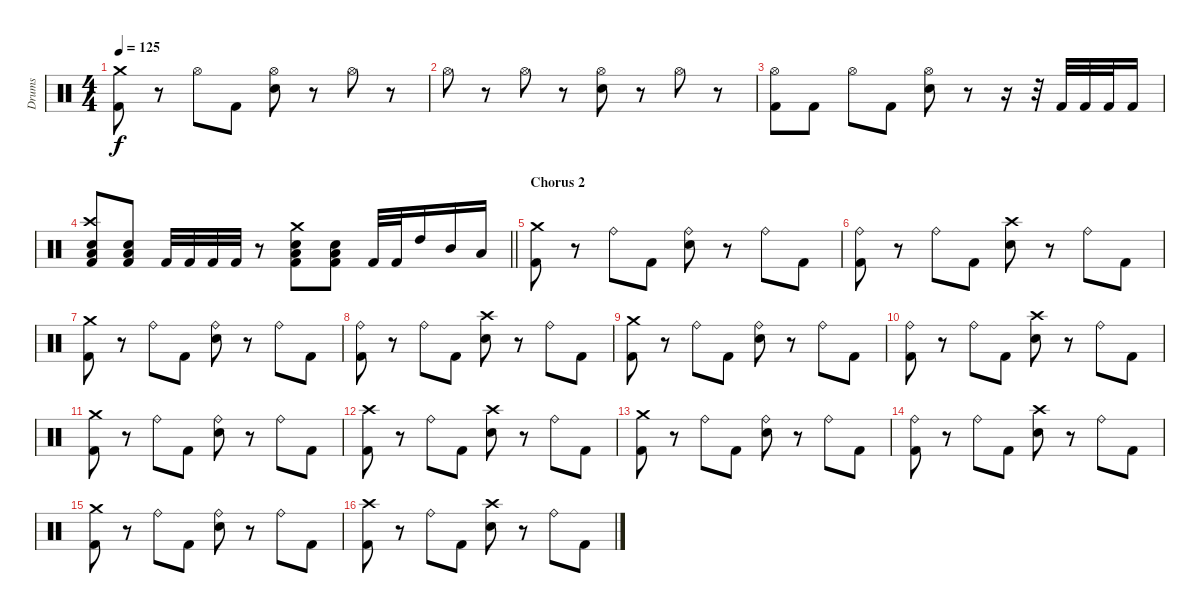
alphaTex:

\track ("Drums " "Drums ") {instrument percussion}
\staff {score}
\articulation defaults
\ts (4 4)
\tempo 125
\clef neutral
\ks c
("Crash medium (hit)" "Kick (hit) 2").8{dy f} r.8 "Hi-Hat (open)".8 "Kick (hit) 2".8 ("Hi-Hat (open)" "Electric Snare (hit)").8 r.8 "Hi-Hat (open)".8 r.8 |
"Hi-Hat (open)".8 r.8 "Hi-Hat (open)".8 r.8 ("Hi-Hat (open)" "Electric Snare (hit)").8 r.8 "Hi-Hat (open)".8 r.8 |
("Hi-Hat (open)" "Kick (hit) 2").8 "Kick (hit) 2".8 "Hi-Hat (open)".8 "Kick (hit) 2".8 ("Hi-Hat (open)" "Electric Snare (hit)").8 r.8 r.16 r.32 "Kick (hit) 2".32 "Kick (hit) 2".32 "Kick (hit) 2".32 "Kick (hit) 2".16 |
\barLineRight lightlight
("Crash high (hit)" "Low Tom (hit)" "Electric Snare (hit)" "Kick (hit) 2").8 ("Low Tom (hit)" "Electric Snare (hit)" "Kick (hit) 2").8 "Kick (hit) 2".32 "Kick (hit) 2".32 "Kick (hit) 2".32 "Kick (hit) 2".32 r.8 ("Crash medium (hit)" "Low Tom (hit)" "Electric Snare (hit)" "Kick (hit) 2").8 ("Low Tom (hit)" "Electric Snare (hit)" "Kick (hit) 2").8 "Kick (hit) 2".32 "Kick (hit) 2".32 "High Tom (hit)".16 "Mid Tom (hit)".16 "Low Tom (hit)".16 |
\section ("" "Chorus 2 ")
("Crash medium (hit)" "Kick (hit) 2").8 r.8 "Ride (bell)".8 "Kick (hit) 2".8 ("Ride (bell)" "Electric Snare (hit)").8 r.8 "Ride (bell)".8 "Kick (hit) 2".8 |
("Ride (bell)" "Kick (hit) 2").8 r.8 "Ride (bell)".8 "Kick (hit) 2".8 ("Crash high (hit)" "Electric Snare (hit)").8 r.8 "Ride (bell)".8 "Kick (hit) 2".8 |
("Crash medium (hit)" "Kick (hit) 2").8 r.8 "Ride (bell)".8 "Kick (hit) 2".8 ("Ride (bell)" "Electric Snare (hit)").8 r.8 "Ride (bell)".8 "Kick (hit) 2".8 |
("Ride (bell)" "Kick (hit) 2").8 r.8 "Ride (bell)".8 "Kick (hit) 2".8 ("Crash high (hit)" "Electric Snare (hit)").8 r.8 "Ride (bell)".8 "Kick (hit) 2".8 |
("Crash medium (hit)" "Kick (hit) 2").8 r.8 "Ride (bell)".8 "Kick (hit) 2".8 ("Ride (bell)" "Electric Snare (hit)").8 r.8 "Ride (bell)".8 "Kick (hit) 2".8 |
("Ride (bell)" "Kick (hit) 2").8 r.8 "Ride (bell)".8 "Kick (hit) 2".8 ("Crash high (hit)" "Electric Snare (hit)").8 r.8 "Ride (bell)".8 "Kick (hit) 2".8 |
("Crash medium (hit)" "Kick (hit) 2").8 r.8 "Ride (bell)".8 "Kick (hit) 2".8 ("Ride (bell)" "Electric Snare (hit)").8 r.8 "Ride (bell)".8 "Kick (hit) 2".8 |
("Crash high (hit)" "Kick (hit) 2").8 r.8 "Ride (bell)".8 "Kick (hit) 2".8 ("Crash high (hit)" "Electric Snare (hit)").8 r.8 "Ride (bell)".8 "Kick (hit) 2".8 |
("Crash medium (hit)" "Kick (hit) 2").8 r.8 "Ride (bell)".8 "Kick (hit) 2".8 ("Ride (bell)" "Electric Snare (hit)").8 r.8 "Ride (bell)".8 "Kick (hit) 2".8 |
("Ride (bell)" "Kick (hit) 2").8 r.8 "Ride (bell)".8 "Kick (hit) 2".8 ("Crash high (hit)" "Electric Snare (hit)").8 r.8 "Ride (bell)".8 "Kick (hit) 2".8 |
("Crash medium (hit)" "Kick (hit) 2").8 r.8 "Ride (bell)".8 "Kick (hit) 2".8 ("Ride (bell)" "Electric Snare (hit)").8 r.8 "Ride (bell)".8 "Kick (hit) 2".8 |
("Crash high (hit)" "Kick (hit) 2").8 r.8 "Ride (bell)".8 "Kick (hit) 2".8 ("Crash high (hit)" "Electric Snare (hit)").8 r.8 "Ride (bell)".8 "Kick (hit) 2".8
